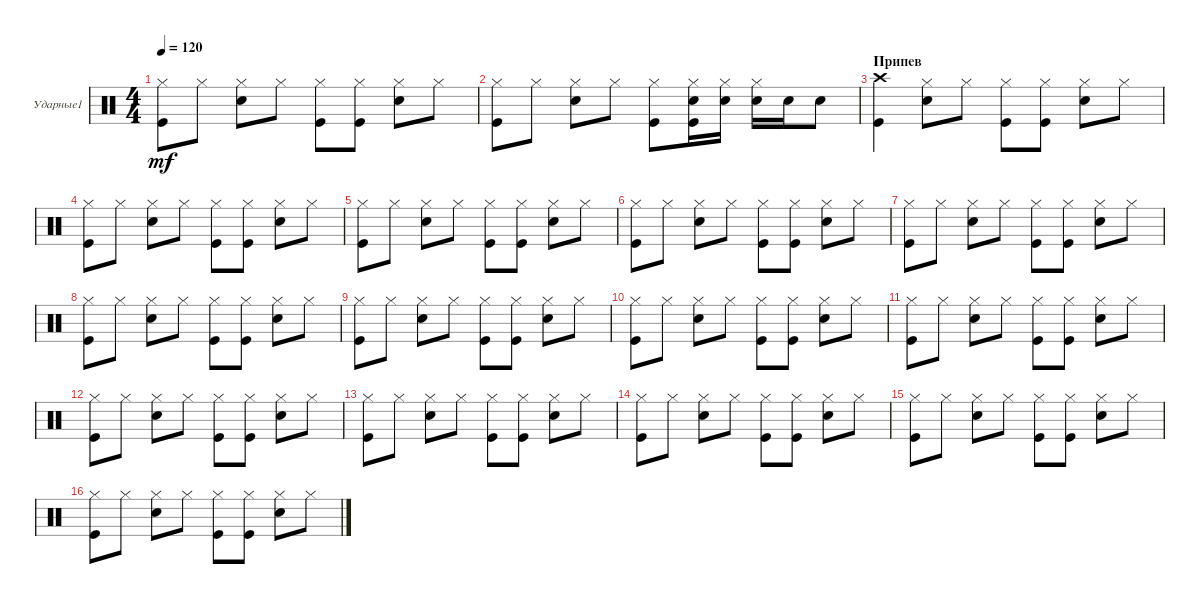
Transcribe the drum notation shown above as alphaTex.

\defaultSystemsLayout 4
\bracketExtendMode groupsimilarinstruments
\firstSystemTrackNameOrientation horizontal
\otherSystemsTrackNameOrientation horizontal
\track ("Е.Кулаков" "Ударные1") {instrument percussion}
\staff {score}
\articulation defaults
\ts (4 4)
\tempo 120
\clef neutral
\ks c
("Hi-Hat (closed)" "Kick (hit)").8{dy mf} "Hi-Hat (closed)".8 ("Hi-Hat (closed)" "Snare (hit) 2").8 "Hi-Hat (closed)".8 ("Hi-Hat (closed)" "Kick (hit)").8 ("Hi-Hat (closed)" "Kick (hit)").8 ("Hi-Hat (closed)" "Snare (hit) 2").8 "Hi-Hat (closed)".8 |
("Hi-Hat (closed)" "Kick (hit)").8 "Hi-Hat (closed)".8 ("Hi-Hat (closed)" "Snare (hit) 2").8 "Hi-Hat (closed)".8 ("Hi-Hat (closed)" "Kick (hit)").8 ("Hi-Hat (closed)" "Kick (hit)" "Snare (hit) 2").16 ("Hi-Hat (closed)" "Snare (hit) 2").16 ("Hi-Hat (closed)" "Snare (hit) 2").16 "Snare (hit) 2".16 "Snare (hit) 2".8 |
\section ("" "Припев")
("Crash high (hit)" "Kick (hit)").4 ("Hi-Hat (closed)" "Snare (hit) 2").8 "Hi-Hat (closed)".8 ("Hi-Hat (closed)" "Kick (hit)").8 ("Hi-Hat (closed)" "Kick (hit)").8 ("Hi-Hat (closed)" "Snare (hit) 2").8 "Hi-Hat (closed)".8 |
("Hi-Hat (closed)" "Kick (hit)").8 "Hi-Hat (closed)".8 ("Hi-Hat (closed)" "Snare (hit) 2").8 "Hi-Hat (closed)".8 ("Hi-Hat (closed)" "Kick (hit)").8 ("Hi-Hat (closed)" "Kick (hit)").8 ("Hi-Hat (closed)" "Snare (hit) 2").8 "Hi-Hat (closed)".8 |
("Hi-Hat (closed)" "Kick (hit)").8 "Hi-Hat (closed)".8 ("Hi-Hat (closed)" "Snare (hit) 2").8 "Hi-Hat (closed)".8 ("Hi-Hat (closed)" "Kick (hit)").8 ("Hi-Hat (closed)" "Kick (hit)").8 ("Hi-Hat (closed)" "Snare (hit) 2").8 "Hi-Hat (closed)".8 |
("Hi-Hat (closed)" "Kick (hit)").8 "Hi-Hat (closed)".8 ("Hi-Hat (closed)" "Snare (hit) 2").8 "Hi-Hat (closed)".8 ("Hi-Hat (closed)" "Kick (hit)").8 ("Hi-Hat (closed)" "Kick (hit)").8 ("Hi-Hat (closed)" "Snare (hit) 2").8 "Hi-Hat (closed)".8 |
("Hi-Hat (closed)" "Kick (hit)").8 "Hi-Hat (closed)".8 ("Hi-Hat (closed)" "Snare (hit) 2").8 "Hi-Hat (closed)".8 ("Hi-Hat (closed)" "Kick (hit)").8 ("Hi-Hat (closed)" "Kick (hit)").8 ("Hi-Hat (closed)" "Snare (hit) 2").8 "Hi-Hat (closed)".8 |
("Hi-Hat (closed)" "Kick (hit)").8 "Hi-Hat (closed)".8 ("Hi-Hat (closed)" "Snare (hit) 2").8 "Hi-Hat (closed)".8 ("Hi-Hat (closed)" "Kick (hit)").8 ("Hi-Hat (closed)" "Kick (hit)").8 ("Hi-Hat (closed)" "Snare (hit) 2").8 "Hi-Hat (closed)".8 |
("Hi-Hat (closed)" "Kick (hit)").8 "Hi-Hat (closed)".8 ("Hi-Hat (closed)" "Snare (hit) 2").8 "Hi-Hat (closed)".8 ("Hi-Hat (closed)" "Kick (hit)").8 ("Hi-Hat (closed)" "Kick (hit)").8 ("Hi-Hat (closed)" "Snare (hit) 2").8 "Hi-Hat (closed)".8 |
("Hi-Hat (closed)" "Kick (hit)").8 "Hi-Hat (closed)".8 ("Hi-Hat (closed)" "Snare (hit) 2").8 "Hi-Hat (closed)".8 ("Hi-Hat (closed)" "Kick (hit)").8 ("Hi-Hat (closed)" "Kick (hit)").8 ("Hi-Hat (closed)" "Snare (hit) 2").8 "Hi-Hat (closed)".8 |
("Hi-Hat (closed)" "Kick (hit)").8 "Hi-Hat (closed)".8 ("Hi-Hat (closed)" "Snare (hit) 2").8 "Hi-Hat (closed)".8 ("Hi-Hat (closed)" "Kick (hit)").8 ("Hi-Hat (closed)" "Kick (hit)").8 ("Hi-Hat (closed)" "Snare (hit) 2").8 "Hi-Hat (closed)".8 |
("Hi-Hat (closed)" "Kick (hit)").8 "Hi-Hat (closed)".8 ("Hi-Hat (closed)" "Snare (hit) 2").8 "Hi-Hat (closed)".8 ("Hi-Hat (closed)" "Kick (hit)").8 ("Hi-Hat (closed)" "Kick (hit)").8 ("Hi-Hat (closed)" "Snare (hit) 2").8 "Hi-Hat (closed)".8 |
("Hi-Hat (closed)" "Kick (hit)").8 "Hi-Hat (closed)".8 ("Hi-Hat (closed)" "Snare (hit) 2").8 "Hi-Hat (closed)".8 ("Hi-Hat (closed)" "Kick (hit)").8 ("Hi-Hat (closed)" "Kick (hit)").8 ("Hi-Hat (closed)" "Snare (hit) 2").8 "Hi-Hat (closed)".8 |
("Hi-Hat (closed)" "Kick (hit)").8 "Hi-Hat (closed)".8 ("Hi-Hat (closed)" "Snare (hit) 2").8 "Hi-Hat (closed)".8 ("Hi-Hat (closed)" "Kick (hit)").8 ("Hi-Hat (closed)" "Kick (hit)").8 ("Hi-Hat (closed)" "Snare (hit) 2").8 "Hi-Hat (closed)".8 |
("Hi-Hat (closed)" "Kick (hit)").8 "Hi-Hat (closed)".8 ("Hi-Hat (closed)" "Snare (hit) 2").8 "Hi-Hat (closed)".8 ("Hi-Hat (closed)" "Kick (hit)").8 ("Hi-Hat (closed)" "Kick (hit)").8 ("Hi-Hat (closed)" "Snare (hit) 2").8 "Hi-Hat (closed)".8 |
("Hi-Hat (closed)" "Kick (hit)").8 "Hi-Hat (closed)".8 ("Hi-Hat (closed)" "Snare (hit) 2").8 "Hi-Hat (closed)".8 ("Hi-Hat (closed)" "Kick (hit)").8 ("Hi-Hat (closed)" "Kick (hit)").8 ("Hi-Hat (closed)" "Snare (hit) 2").8 "Hi-Hat (closed)".8
